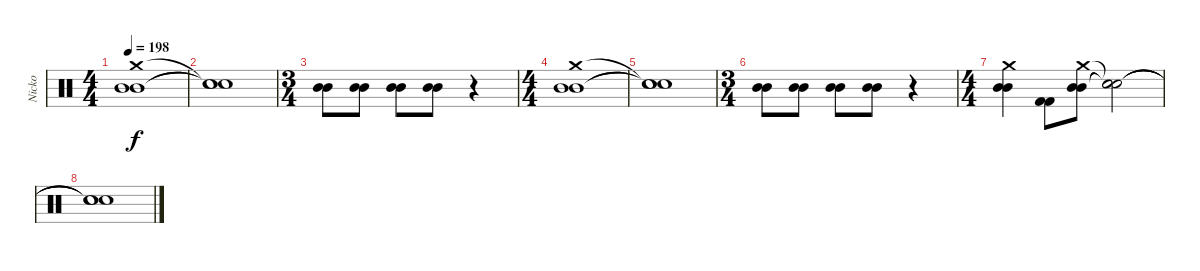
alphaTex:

\track ("Nicko" "Nicko") {instrument percussion}
\staff {score}
\articulation defaults
\ts (4 4)
\tempo 198
\clef neutral
\ks c
("Crash medium (hit)" "Mid Tom (hit)" "Mid Tom (hit)").1{dy f} |
("Snare (hit)"{t} "Snare (hit)"{t} "Snare (hit)"{t}).1 |
\ts (3 4)
("Mid Tom (hit)" "Mid Tom (hit)").8 ("Mid Tom (hit)" "Mid Tom (hit)").8 ("Mid Tom (hit)" "Mid Tom (hit)").8 ("Mid Tom (hit)" "Mid Tom (hit)").8 r.4 |
\ts (4 4)
("Crash medium (hit)" "Mid Tom (hit)" "Mid Tom (hit)").1 |
("Snare (hit)"{t} "Snare (hit)"{t} "Snare (hit)"{t}).1 |
\ts (3 4)
("Mid Tom (hit)" "Mid Tom (hit)").8 ("Mid Tom (hit)" "Mid Tom (hit)").8 ("Mid Tom (hit)" "Mid Tom (hit)").8 ("Mid Tom (hit)" "Mid Tom (hit)").8 r.4 |
\ts (4 4)
("Crash medium (hit)" "Mid Tom (hit)" "Mid Tom (hit)").4 ("Kick (hit) 2" "Kick (hit) 2").8 ("Crash medium (hit)" "Mid Tom (hit)" "Mid Tom (hit)").8 ("Snare (hit)"{t} "Snare (hit)"{t} "Snare (hit)"{t}).2 |
("Snare (hit)"{t} "Snare (hit)"{t} "Snare (hit)"{t}).1
